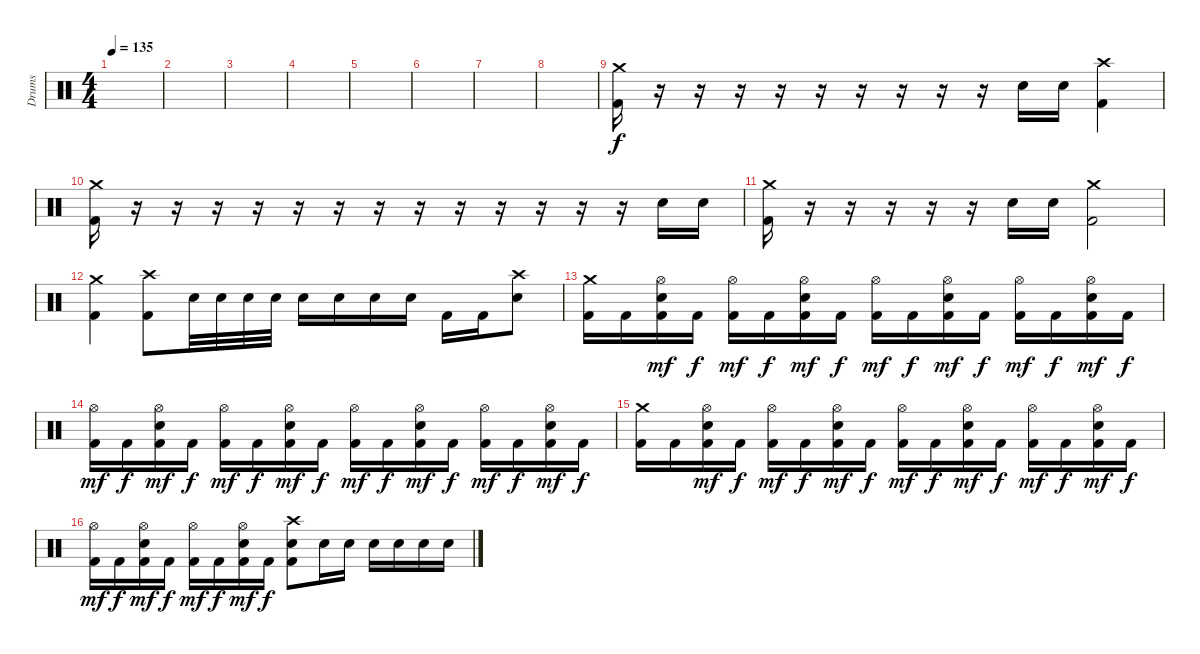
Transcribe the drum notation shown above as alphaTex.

\track ("Drums" "Drums") {instrument percussion}
\staff {score}
\articulation defaults
\ts (4 4)
\tempo 135
\clef neutral
\ks c
|
|
|
|
|
|
|
|
("Crash medium (hit)" "Kick (hit) 2").16 r.16 r.16 r.16 r.16 r.16 r.16 r.16 r.16 r.16 "Electric Snare (hit)".16 "Electric Snare (hit)".16 ("Crash high (hit)" "Kick (hit) 2").4 |
("Crash medium (hit)" "Kick (hit) 2").16 r.16 r.16 r.16 r.16 r.16 r.16 r.16 r.16 r.16 r.16 r.16 r.16 r.16 "Electric Snare (hit)".16 "Electric Snare (hit)".16 |
("Crash medium (hit)" "Kick (hit) 2").16 r.16 r.16 r.16 r.16 r.16 "Electric Snare (hit)".16 "Electric Snare (hit)".16 ("Crash medium (hit)" "Kick (hit) 2").2 |
("Crash medium (hit)" "Kick (hit) 2").4 ("Crash high (hit)" "Kick (hit) 2").8 "Electric Snare (hit)".32 "Electric Snare (hit)".32 "Electric Snare (hit)".32 "Electric Snare (hit)".32 "Electric Snare (hit)".16 "Electric Snare (hit)".16 "Electric Snare (hit)".16 "Electric Snare (hit)".16 "Kick (hit) 2".16 "Kick (hit) 2".16 ("Crash high (hit)" "Electric Snare (hit)").8 |
("Crash medium (hit)" "Kick (hit) 2").16 "Kick (hit) 2".16 ("Hi-Hat (open)" "Electric Snare (hit)" "Kick (hit) 2").16{dy mf} "Kick (hit) 2".16{dy f} ("Hi-Hat (open)" "Kick (hit) 2").16{dy mf} "Kick (hit) 2".16{dy f} ("Hi-Hat (open)" "Electric Snare (hit)" "Kick (hit) 2").16{dy mf} "Kick (hit) 2".16{dy f} ("Hi-Hat (open)" "Kick (hit) 2").16{dy mf} "Kick (hit) 2".16{dy f} ("Hi-Hat (open)" "Electric Snare (hit)" "Kick (hit) 2").16{dy mf} "Kick (hit) 2".16{dy f} ("Hi-Hat (open)" "Kick (hit) 2").16{dy mf} "Kick (hit) 2".16{dy f} ("Hi-Hat (open)" "Electric Snare (hit)" "Kick (hit) 2").16{dy mf} "Kick (hit) 2".16{dy f} |
("Hi-Hat (open)" "Kick (hit) 2").16{dy mf} "Kick (hit) 2".16{dy f} ("Hi-Hat (open)" "Electric Snare (hit)" "Kick (hit) 2").16{dy mf} "Kick (hit) 2".16{dy f} ("Hi-Hat (open)" "Kick (hit) 2").16{dy mf} "Kick (hit) 2".16{dy f} ("Hi-Hat (open)" "Electric Snare (hit)" "Kick (hit) 2").16{dy mf} "Kick (hit) 2".16{dy f} ("Hi-Hat (open)" "Kick (hit) 2").16{dy mf} "Kick (hit) 2".16{dy f} ("Hi-Hat (open)" "Electric Snare (hit)" "Kick (hit) 2").16{dy mf} "Kick (hit) 2".16{dy f} ("Hi-Hat (open)" "Kick (hit) 2").16{dy mf} "Kick (hit) 2".16{dy f} ("Hi-Hat (open)" "Electric Snare (hit)" "Kick (hit) 2").16{dy mf} "Kick (hit) 2".16{dy f} |
("Crash medium (hit)" "Kick (hit) 2").16 "Kick (hit) 2".16 ("Hi-Hat (open)" "Electric Snare (hit)" "Kick (hit) 2").16{dy mf} "Kick (hit) 2".16{dy f} ("Hi-Hat (open)" "Kick (hit) 2").16{dy mf} "Kick (hit) 2".16{dy f} ("Hi-Hat (open)" "Electric Snare (hit)" "Kick (hit) 2").16{dy mf} "Kick (hit) 2".16{dy f} ("Hi-Hat (open)" "Kick (hit) 2").16{dy mf} "Kick (hit) 2".16{dy f} ("Hi-Hat (open)" "Electric Snare (hit)" "Kick (hit) 2").16{dy mf} "Kick (hit) 2".16{dy f} ("Hi-Hat (open)" "Kick (hit) 2").16{dy mf} "Kick (hit) 2".16{dy f} ("Hi-Hat (open)" "Electric Snare (hit)" "Kick (hit) 2").16{dy mf} "Kick (hit) 2".16{dy f} |
("Hi-Hat (open)" "Kick (hit) 2").16{dy mf} "Kick (hit) 2".16{dy f} ("Hi-Hat (open)" "Electric Snare (hit)" "Kick (hit) 2").16{dy mf} "Kick (hit) 2".16{dy f} ("Hi-Hat (open)" "Kick (hit) 2").16{dy mf} "Kick (hit) 2".16{dy f} ("Hi-Hat (open)" "Electric Snare (hit)" "Kick (hit) 2").16{dy mf} "Kick (hit) 2".16{dy f} ("Crash high (hit)" "Electric Snare (hit)" "Kick (hit) 2").8 "Electric Snare (hit)".16 "Electric Snare (hit)".16 "Electric Snare (hit)".16 "Electric Snare (hit)".16 "Electric Snare (hit)".16 "Electric Snare (hit)".16
